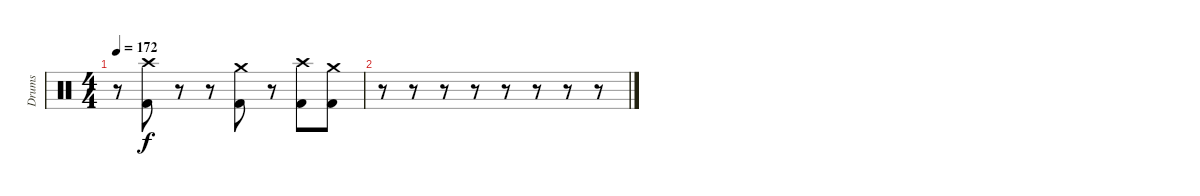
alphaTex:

\track ("Drums" "Drums") {instrument percussion}
\staff {score}
\articulation defaults
\ts (4 4)
\tempo 172
\clef neutral
\ks c
r.8{dy f} ("Crash high (hit)" "Kick (hit) 2").8 r.8 r.8 ("Crash medium (hit)" "Kick (hit) 2").8 r.8 ("Crash high (hit)" "Kick (hit) 2").8 ("Crash medium (hit)" "Kick (hit) 2").8 |
r.8 r.8 r.8 r.8 r.8 r.8 r.8 r.8
